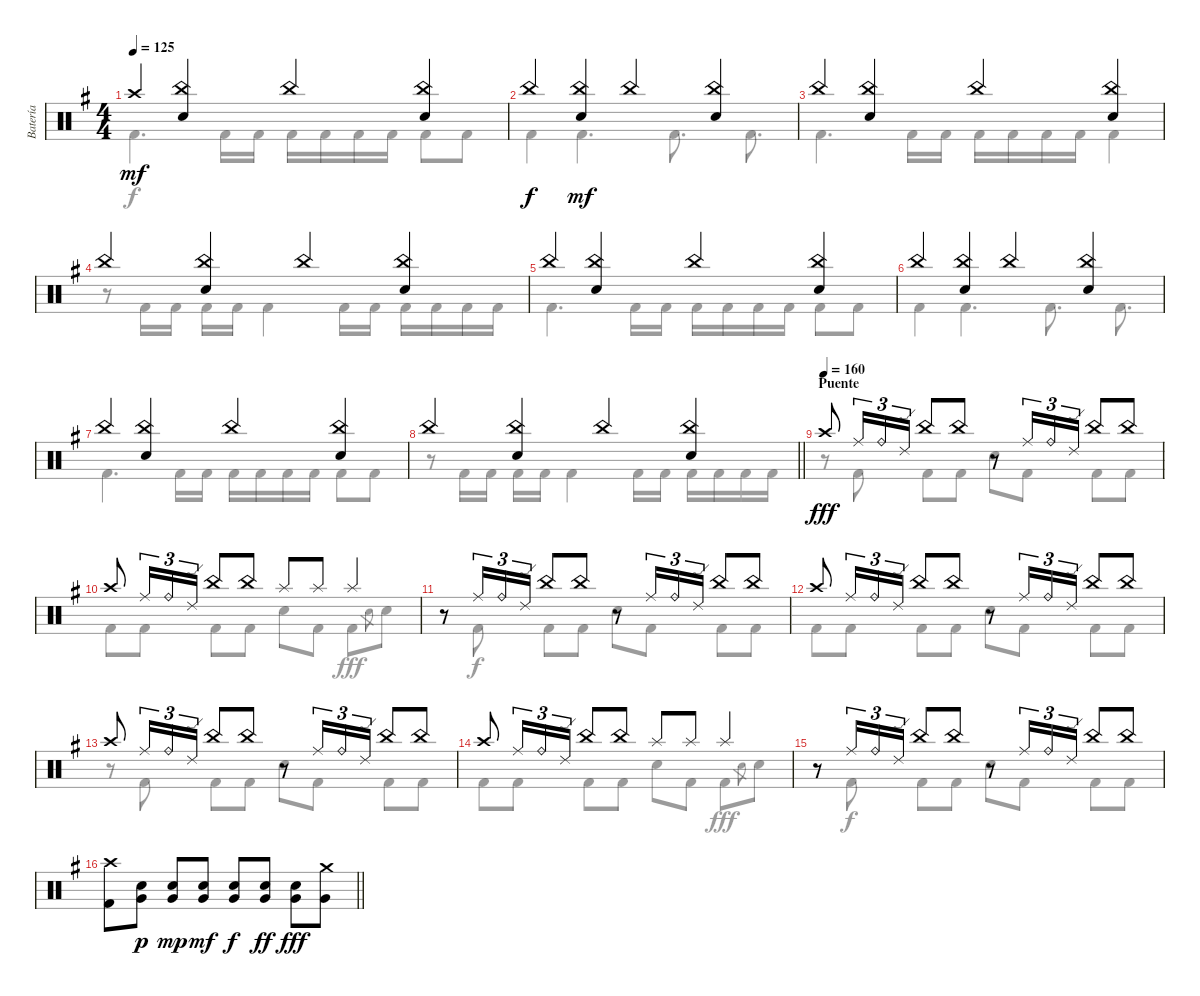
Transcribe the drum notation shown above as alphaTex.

\track ("Batería" "Batería") {instrument percussion}
\staff {score}
\articulation defaults
\voice
\ts (4 4)
\tempo 125
\clef neutral
\ks g "Crash high (hit)".4{dy mf volume 13}
("China (hit)" "Snare (hit) 2").4 "China (hit)".4 ("China (hit)" "Snare (hit) 2").4 |
"China (hit)".4{dy f} ("China (hit)" "Snare (hit) 2").4{dy mf} "China (hit)".4 ("China (hit)" "Snare (hit) 2").4 |
"China (hit)".4 ("China (hit)" "Snare (hit) 2").4 "China (hit)".4 ("China (hit)" "Snare (hit) 2").4 |
"China (hit)".4 ("China (hit)" "Snare (hit) 2").4 "China (hit)".4 ("China (hit)" "Snare (hit) 2").4 |
"China (hit)".4 ("China (hit)" "Snare (hit) 2").4 "China (hit)".4 ("China (hit)" "Snare (hit) 2").4 |
"China (hit)".4 ("China (hit)" "Snare (hit) 2").4 "China (hit)".4 ("China (hit)" "Snare (hit) 2").4 |
"China (hit)".4 ("China (hit)" "Snare (hit) 2").4 "China (hit)".4 ("China (hit)" "Snare (hit) 2").4 |
\barLineRight lightlight "China (hit)".4
("China (hit)" "Snare (hit) 2").4 "China (hit)".4 ("China (hit)" "Snare (hit) 2").4 |
\section ("" "Puente")
\tempo (160)
"Crash high (hit)".8{dy fff} "Ride (middle)".16{tu (3 2)} "Ride (bell)".16{tu (3 2)} "Ride (edge) 2".16{tu (3 2)} "China (hit)".8 "China (hit)".8 r.8 "Ride (middle)".16{tu (3 2)} "Ride (bell)".16{tu (3 2)} "Ride (edge) 2".16{tu (3 2)} "China (hit)".8 "China (hit)".8 |
"Crash high (hit)".8 "Ride (middle)".16{tu (3 2)} "Ride (bell)".16{tu (3 2)} "Ride (edge) 2".16{tu (3 2)} "China (hit)".8 "China (hit)".8 "Splash (hit)".8 "Splash (hit)".8 "Splash (hit)".4 |
r.8 "Ride (middle)".16{tu (3 2)} "Ride (bell)".16{tu (3 2)} "Ride (edge) 2".16{tu (3 2)} "China (hit)".8 "China (hit)".8 r.8 "Ride (middle)".16{tu (3 2)} "Ride (bell)".16{tu (3 2)} "Ride (edge) 2".16{tu (3 2)} "China (hit)".8 "China (hit)".8 |
"Crash high (hit)".8 "Ride (middle)".16{tu (3 2)} "Ride (bell)".16{tu (3 2)} "Ride (edge) 2".16{tu (3 2)} "China (hit)".8 "China (hit)".8 r.8 "Ride (middle)".16{tu (3 2)} "Ride (bell)".16{tu (3 2)} "Ride (edge) 2".16{tu (3 2)} "China (hit)".8 "China (hit)".8 |
"Crash high (hit)".8 "Ride (middle)".16{tu (3 2)} "Ride (bell)".16{tu (3 2)} "Ride (edge) 2".16{tu (3 2)} "China (hit)".8 "China (hit)".8 r.8 "Ride (middle)".16{tu (3 2)} "Ride (bell)".16{tu (3 2)} "Ride (edge) 2".16{tu (3 2)} "China (hit)".8 "China (hit)".8 |
"Crash high (hit)".8 "Ride (middle)".16{tu (3 2)} "Ride (bell)".16{tu (3 2)} "Ride (edge) 2".16{tu (3 2)} "China (hit)".8 "China (hit)".8 "Splash (hit)".8 "Splash (hit)".8 "Splash (hit)".4 |
r.8 "Ride (middle)".16{tu (3 2)} "Ride (bell)".16{tu (3 2)} "Ride (edge) 2".16{tu (3 2)} "China (hit)".8 "China (hit)".8 r.8 "Ride (middle)".16{tu (3 2)} "Ride (bell)".16{tu (3 2)} "Ride (edge) 2".16{tu (3 2)} "China (hit)".8 "China (hit)".8 |
\barLineRight lightlight
("Crash high (hit)" "Kick (hit) 2").8 ("Snare (hit) 2" "Very Low Tom (hit)").8{dy p} ("Snare (hit) 2" "Very Low Tom (hit)").8{dy mp} ("Snare (hit) 2" "Very Low Tom (hit)").8{dy mf} ("Snare (hit) 2" "Very Low Tom (hit)").8{dy f} ("Snare (hit) 2" "Very Low Tom (hit)").8{dy ff} ("Snare (hit) 2" "Very Low Tom (hit)").8{dy fff} ("Crash medium (hit)" "Very Low Tom (hit)").8
\voice
\clef neutral
\ottava regular
\simile none
\ks g "Kick (hit) 2".4{d dy f} "Kick (hit) 2".16 "Kick (hit) 2".16 "Kick (hit) 2".16 "Kick (hit) 2".16 "Kick (hit) 2".16 "Kick (hit) 2".16 "Kick (hit) 2".8 "Kick (hit) 2".8
|
"Kick (hit) 2".4 "Kick (hit) 2".4{d} "Kick (hit) 2".8{d} "Kick (hit) 2".8{d} |
"Kick (hit) 2".4{d} "Kick (hit) 2".16 "Kick (hit) 2".16 "Kick (hit) 2".16 "Kick (hit) 2".16 "Kick (hit) 2".16 "Kick (hit) 2".16 "Kick (hit) 2".4 |
r.8 "Kick (hit) 2".16 "Kick (hit) 2".16 "Kick (hit) 2".16 "Kick (hit) 2".16 "Kick (hit) 2".4 "Kick (hit) 2".16 "Kick (hit) 2".16 "Kick (hit) 2".16 "Kick (hit) 2".16 "Kick (hit) 2".16 "Kick (hit) 2".16 |
"Kick (hit) 2".4{d} "Kick (hit) 2".16 "Kick (hit) 2".16 "Kick (hit) 2".16 "Kick (hit) 2".16 "Kick (hit) 2".16 "Kick (hit) 2".16 "Kick (hit) 2".8 "Kick (hit) 2".8 |
"Kick (hit) 2".4 "Kick (hit) 2".4{d} "Kick (hit) 2".8{d} "Kick (hit) 2".8{d} |
"Kick (hit) 2".4{d} "Kick (hit) 2".16 "Kick (hit) 2".16 "Kick (hit) 2".16 "Kick (hit) 2".16 "Kick (hit) 2".16 "Kick (hit) 2".16 "Kick (hit) 2".8 "Kick (hit) 2".8 |
\barLineRight lightlight
r.8 "Kick (hit) 2".16 "Kick (hit) 2".16 "Kick (hit) 2".16 "Kick (hit) 2".16 "Kick (hit) 2".4 "Kick (hit) 2".16 "Kick (hit) 2".16 "Kick (hit) 2".16 "Kick (hit) 2".16 "Kick (hit) 2".16 "Kick (hit) 2".16 |
r.8 "Kick (hit) 2".8 "Kick (hit) 2".8 "Kick (hit) 2".8 "Snare (hit) 2".8 "Kick (hit) 2".8 "Kick (hit) 2".8 "Kick (hit) 2".8 |
"Kick (hit) 2".8 "Kick (hit) 2".8 "Kick (hit) 2".8 "Kick (hit) 2".8 "Snare (hit) 2".8 "Kick (hit) 2".8 "Kick (hit) 2".8{dy fff} "Snare (hit) 2".8{gr} "Snare (hit) 2".8 |
r.8 "Kick (hit) 2".8{dy f} "Kick (hit) 2".8 "Kick (hit) 2".8 "Snare (hit) 2".8 "Kick (hit) 2".8 "Kick (hit) 2".8 "Kick (hit) 2".8 |
"Kick (hit) 2".8 "Kick (hit) 2".8 "Kick (hit) 2".8 "Kick (hit) 2".8 "Snare (hit) 2".8 "Kick (hit) 2".8 "Kick (hit) 2".8 "Kick (hit) 2".8 |
r.8 "Kick (hit) 2".8 "Kick (hit) 2".8 "Kick (hit) 2".8 "Snare (hit) 2".8 "Kick (hit) 2".8 "Kick (hit) 2".8 "Kick (hit) 2".8 |
"Kick (hit) 2".8 "Kick (hit) 2".8 "Kick (hit) 2".8 "Kick (hit) 2".8 "Snare (hit) 2".8 "Kick (hit) 2".8 "Kick (hit) 2".8{dy fff} "Snare (hit) 2".8{gr} "Snare (hit) 2".8 |
r.8 "Kick (hit) 2".8{dy f} "Kick (hit) 2".8 "Kick (hit) 2".8 "Snare (hit) 2".8 "Kick (hit) 2".8 "Kick (hit) 2".8 "Kick (hit) 2".8 |
\barLineRight lightlight
